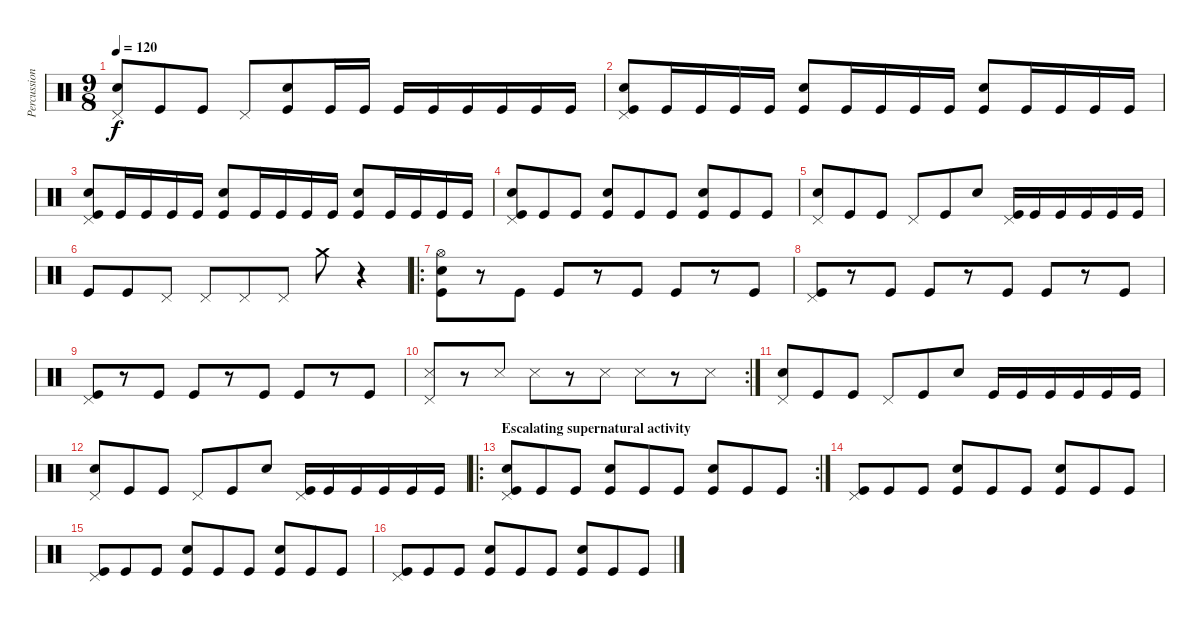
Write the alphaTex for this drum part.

\track ("Percussion" "Percussion") {instrument percussion}
\staff {score}
\articulation defaults
\ts (9 8)
\tempo 120
\clef neutral
\ks c
("Pedal Hi-Hat (hit)" "Snare (hit) 2").8{dy f} "Kick (hit)".8 "Kick (hit)".8 "Pedal Hi-Hat (hit)".8 ("Snare (hit) 2" "Kick (hit)").8 "Kick (hit)".16 "Kick (hit)".16 "Kick (hit)".16 "Kick (hit)".16 "Kick (hit)".16 "Kick (hit)".16 "Kick (hit)".16 "Kick (hit)".16 |
("Pedal Hi-Hat (hit)" "Snare (hit) 2" "Kick (hit)").8 "Kick (hit)".16 "Kick (hit)".16 "Kick (hit)".16 "Kick (hit)".16 ("Snare (hit) 2" "Kick (hit)").8 "Kick (hit)".16 "Kick (hit)".16 "Kick (hit)".16 "Kick (hit)".16 ("Snare (hit) 2" "Kick (hit)").8 "Kick (hit)".16 "Kick (hit)".16 "Kick (hit)".16 "Kick (hit)".16 |
("Pedal Hi-Hat (hit)" "Snare (hit) 2" "Kick (hit)").8 "Kick (hit)".16 "Kick (hit)".16 "Kick (hit)".16 "Kick (hit)".16 ("Snare (hit) 2" "Kick (hit)").8 "Kick (hit)".16 "Kick (hit)".16 "Kick (hit)".16 "Kick (hit)".16 ("Snare (hit) 2" "Kick (hit)").8 "Kick (hit)".16 "Kick (hit)".16 "Kick (hit)".16 "Kick (hit)".16 |
("Pedal Hi-Hat (hit)" "Snare (hit) 2" "Kick (hit)").8 "Kick (hit)".8 "Kick (hit)".8 ("Snare (hit) 2" "Kick (hit)").8 "Kick (hit)".8 "Kick (hit)".8 ("Snare (hit) 2" "Kick (hit)").8 "Kick (hit)".8 "Kick (hit)".8 |
("Pedal Hi-Hat (hit)" "Snare (hit) 2").8 "Kick (hit)".8 "Kick (hit)".8 "Pedal Hi-Hat (hit)".8 "Kick (hit)".8 "Snare (hit) 2".8 ("Pedal Hi-Hat (hit)" "Kick (hit)").16 "Kick (hit)".16 "Kick (hit)".16 "Kick (hit)".16 "Kick (hit)".16 "Kick (hit)".16 |
"Kick (hit)".8 "Kick (hit)".8 "Pedal Hi-Hat (hit)".8 "Pedal Hi-Hat (hit)".8 "Pedal Hi-Hat (hit)".8 "Pedal Hi-Hat (hit)".8 "Crash medium (hit)".8 r.4 |
\ro
("Hi-Hat (open)" "Snare (hit) 2" "Kick (hit)").8 r.8 "Kick (hit)".8 "Kick (hit)".8 r.8 "Kick (hit)".8 "Kick (hit)".8 r.8 "Kick (hit)".8 |
("Pedal Hi-Hat (hit)" "Kick (hit)").8 r.8 "Kick (hit)".8 "Kick (hit)".8 r.8 "Kick (hit)".8 "Kick (hit)".8 r.8 "Kick (hit)".8 |
("Pedal Hi-Hat (hit)" "Kick (hit)").8 r.8 "Kick (hit)".8 "Kick (hit)".8 r.8 "Kick (hit)".8 "Kick (hit)".8 r.8 "Kick (hit)".8 |
\rc 2
("Pedal Hi-Hat (hit)" "Snare (side stick) 3").8 r.8 "Snare (side stick) 3".8 "Snare (side stick) 3".8 r.8 "Snare (side stick) 3".8 "Snare (side stick) 3".8 r.8 "Snare (side stick) 3".8 |
("Pedal Hi-Hat (hit)" "Snare (hit) 2").8 "Kick (hit)".8 "Kick (hit)".8 "Pedal Hi-Hat (hit)".8 "Kick (hit)".8 "Snare (hit) 2".8 "Kick (hit)".16 "Kick (hit)".16 "Kick (hit)".16 "Kick (hit)".16 "Kick (hit)".16 "Kick (hit)".16 |
("Pedal Hi-Hat (hit)" "Snare (hit) 2").8 "Kick (hit)".8 "Kick (hit)".8 "Pedal Hi-Hat (hit)".8 "Kick (hit)".8 "Snare (hit) 2".8 ("Pedal Hi-Hat (hit)" "Kick (hit)").16 "Kick (hit)".16 "Kick (hit)".16 "Kick (hit)".16 "Kick (hit)".16 "Kick (hit)".16 |
\ro
\rc 2
\section ("" "Escalating supernatural activity")
("Pedal Hi-Hat (hit)" "Snare (hit) 2" "Kick (hit)").8 "Kick (hit)".8 "Kick (hit)".8 ("Snare (hit) 2" "Kick (hit)").8 "Kick (hit)".8 "Kick (hit)".8 ("Snare (hit) 2" "Kick (hit)").8 "Kick (hit)".8 "Kick (hit)".8 |
("Pedal Hi-Hat (hit)" "Kick (hit)").8 "Kick (hit)".8 "Kick (hit)".8 ("Snare (hit) 2" "Kick (hit)").8 "Kick (hit)".8 "Kick (hit)".8 ("Snare (hit) 2" "Kick (hit)").8 "Kick (hit)".8 "Kick (hit)".8 |
("Pedal Hi-Hat (hit)" "Kick (hit)").8 "Kick (hit)".8 "Kick (hit)".8 ("Snare (hit) 2" "Kick (hit)").8 "Kick (hit)".8 "Kick (hit)".8 ("Snare (hit) 2" "Kick (hit)").8 "Kick (hit)".8 "Kick (hit)".8 |
("Pedal Hi-Hat (hit)" "Kick (hit)").8 "Kick (hit)".8 "Kick (hit)".8 ("Snare (hit) 2" "Kick (hit)").8 "Kick (hit)".8 "Kick (hit)".8 ("Snare (hit) 2" "Kick (hit)").8 "Kick (hit)".8 "Kick (hit)".8
